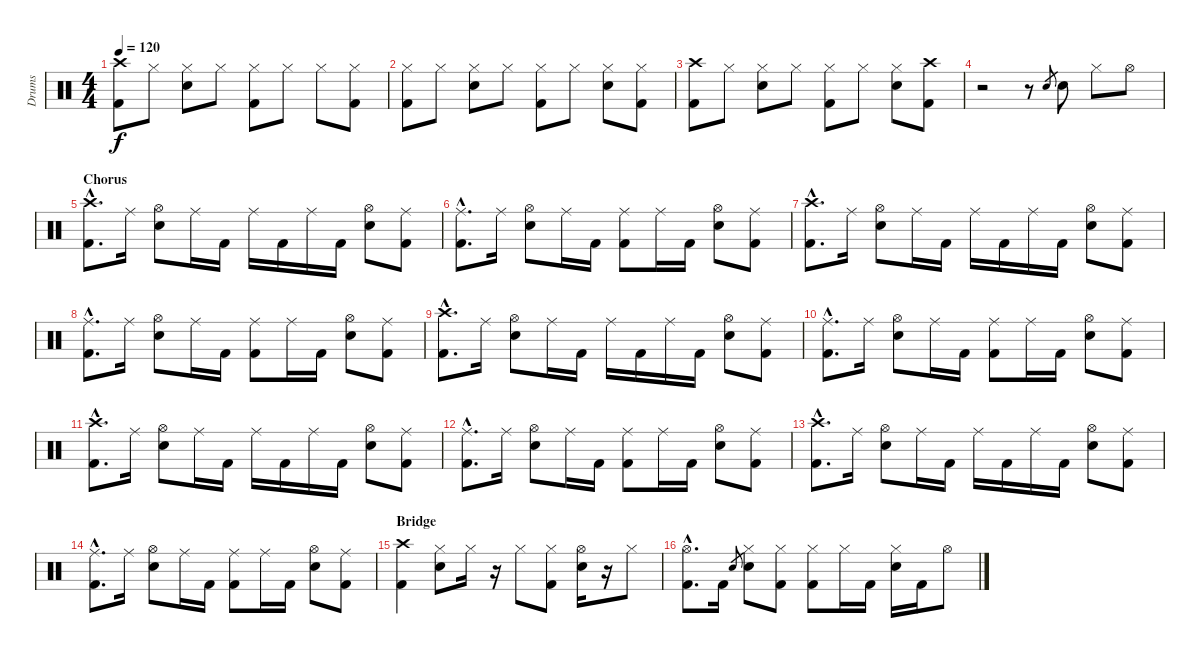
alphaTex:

\track ("Drums" "Drums") {instrument percussion}
\staff {score}
\articulation defaults
\ts (4 4)
\tempo 120
\clef neutral
\ks c
("Crash high (hit)" "Kick (hit) 2").8{dy f} "Hi-Hat (closed)".8 ("Hi-Hat (closed)" "Electric Snare (hit)").8 "Hi-Hat (closed)".8 ("Hi-Hat (closed)" "Kick (hit) 2").8 "Hi-Hat (closed)".8 "Hi-Hat (closed)".8 ("Hi-Hat (closed)" "Kick (hit) 2").8 |
("Hi-Hat (closed)" "Kick (hit) 2").8 "Hi-Hat (closed)".8 ("Hi-Hat (closed)" "Electric Snare (hit)").8 "Hi-Hat (closed)".8 ("Hi-Hat (closed)" "Kick (hit) 2").8 "Hi-Hat (closed)".8 ("Hi-Hat (closed)" "Electric Snare (hit)").8 ("Hi-Hat (closed)" "Kick (hit) 2").8 |
("Crash high (hit)" "Kick (hit) 2").8 "Hi-Hat (closed)".8 ("Hi-Hat (closed)" "Electric Snare (hit)").8 "Hi-Hat (closed)".8 ("Hi-Hat (closed)" "Kick (hit) 2").8 "Hi-Hat (closed)".8 ("Hi-Hat (closed)" "Electric Snare (hit)").8 ("Crash high (hit)" "Kick (hit) 2").8 |
r.2 r.8 "Electric Snare (hit)".8{gr} "Electric Snare (hit)".8 "Hi-Hat (closed)".8 "Hi-Hat (open)".8 |
\section ("" "Chorus")
("Crash high (hit)"{hac} "Kick (hit) 2"{hac}).8{d} "Ride (middle)".16 ("Hi-Hat (open)" "Electric Snare (hit)").8 "Ride (middle)".16 "Kick (hit) 2".16 "Ride (middle)".16 "Kick (hit) 2".16 "Ride (middle)".16 "Kick (hit) 2".16 ("Hi-Hat (open)" "Electric Snare (hit)").8 ("Ride (middle)" "Kick (hit) 2").8 |
("Ride (middle)"{hac} "Kick (hit) 2"{hac}).8{d} "Ride (middle)".16 ("Hi-Hat (open)" "Electric Snare (hit)").8 "Ride (middle)".16 "Kick (hit) 2".16 ("Ride (middle)" "Kick (hit) 2").8 "Ride (middle)".16 "Kick (hit) 2".16 ("Hi-Hat (open)" "Electric Snare (hit)").8 ("Ride (middle)" "Kick (hit) 2").8 |
("Crash high (hit)"{hac} "Kick (hit) 2"{hac}).8{d} "Ride (middle)".16 ("Hi-Hat (open)" "Electric Snare (hit)").8 "Ride (middle)".16 "Kick (hit) 2".16 "Ride (middle)".16 "Kick (hit) 2".16 "Ride (middle)".16 "Kick (hit) 2".16 ("Hi-Hat (open)" "Electric Snare (hit)").8 ("Ride (middle)" "Kick (hit) 2").8 |
("Ride (middle)"{hac} "Kick (hit) 2"{hac}).8{d} "Ride (middle)".16 ("Hi-Hat (open)" "Electric Snare (hit)").8 "Ride (middle)".16 "Kick (hit) 2".16 ("Ride (middle)" "Kick (hit) 2").8 "Ride (middle)".16 "Kick (hit) 2".16 ("Hi-Hat (open)" "Electric Snare (hit)").8 ("Ride (middle)" "Kick (hit) 2").8 |
("Crash high (hit)"{hac} "Kick (hit) 2"{hac}).8{d} "Ride (middle)".16 ("Hi-Hat (open)" "Electric Snare (hit)").8 "Ride (middle)".16 "Kick (hit) 2".16 "Ride (middle)".16 "Kick (hit) 2".16 "Ride (middle)".16 "Kick (hit) 2".16 ("Hi-Hat (open)" "Electric Snare (hit)").8 ("Ride (middle)" "Kick (hit) 2").8 |
("Ride (middle)"{hac} "Kick (hit) 2"{hac}).8{d} "Ride (middle)".16 ("Hi-Hat (open)" "Electric Snare (hit)").8 "Ride (middle)".16 "Kick (hit) 2".16 ("Ride (middle)" "Kick (hit) 2").8 "Ride (middle)".16 "Kick (hit) 2".16 ("Hi-Hat (open)" "Electric Snare (hit)").8 ("Ride (middle)" "Kick (hit) 2").8 |
("Crash high (hit)"{hac} "Kick (hit) 2"{hac}).8{d} "Ride (middle)".16 ("Hi-Hat (open)" "Electric Snare (hit)").8 "Ride (middle)".16 "Kick (hit) 2".16 "Ride (middle)".16 "Kick (hit) 2".16 "Ride (middle)".16 "Kick (hit) 2".16 ("Hi-Hat (open)" "Electric Snare (hit)").8 ("Ride (middle)" "Kick (hit) 2").8 |
("Ride (middle)"{hac} "Kick (hit) 2"{hac}).8{d} "Ride (middle)".16 ("Hi-Hat (open)" "Electric Snare (hit)").8 "Ride (middle)".16 "Kick (hit) 2".16 ("Ride (middle)" "Kick (hit) 2").8 "Ride (middle)".16 "Kick (hit) 2".16 ("Hi-Hat (open)" "Electric Snare (hit)").8 ("Ride (middle)" "Kick (hit) 2").8 |
("Crash high (hit)"{hac} "Kick (hit) 2"{hac}).8{d} "Ride (middle)".16 ("Hi-Hat (open)" "Electric Snare (hit)").8 "Ride (middle)".16 "Kick (hit) 2".16 "Ride (middle)".16 "Kick (hit) 2".16 "Ride (middle)".16 "Kick (hit) 2".16 ("Hi-Hat (open)" "Electric Snare (hit)").8 ("Ride (middle)" "Kick (hit) 2").8 |
("Ride (middle)"{hac} "Kick (hit) 2"{hac}).8{d} "Ride (middle)".16 ("Hi-Hat (open)" "Electric Snare (hit)").8 "Ride (middle)".16 "Kick (hit) 2".16 ("Ride (middle)" "Kick (hit) 2").8 "Ride (middle)".16 "Kick (hit) 2".16 ("Hi-Hat (open)" "Electric Snare (hit)").8 ("Ride (middle)" "Kick (hit) 2").8 |
\section ("" "Bridge")
("Crash high (hit)" "Kick (hit) 2").4 ("Hi-Hat (closed)" "Electric Snare (hit)").8 "Hi-Hat (closed)".16 r.16 "Hi-Hat (closed)".8 ("Hi-Hat (closed)" "Kick (hit) 2").8 ("Hi-Hat (open)" "Electric Snare (hit)").16 r.16 "Hi-Hat (closed)".8 |
("Hi-Hat (open)"{hac} "Kick (hit) 2"{hac}).8{d} "Kick (hit) 2".16 "Electric Snare (hit)".8{gr} ("Hi-Hat (closed)" "Electric Snare (hit)").8 ("Hi-Hat (closed)" "Kick (hit) 2").8 ("Hi-Hat (closed)" "Kick (hit) 2").8 "Hi-Hat (closed)".16 "Kick (hit) 2".16 ("Hi-Hat (closed)" "Electric Snare (hit)").16 "Kick (hit) 2".16 "Hi-Hat (open)".8
